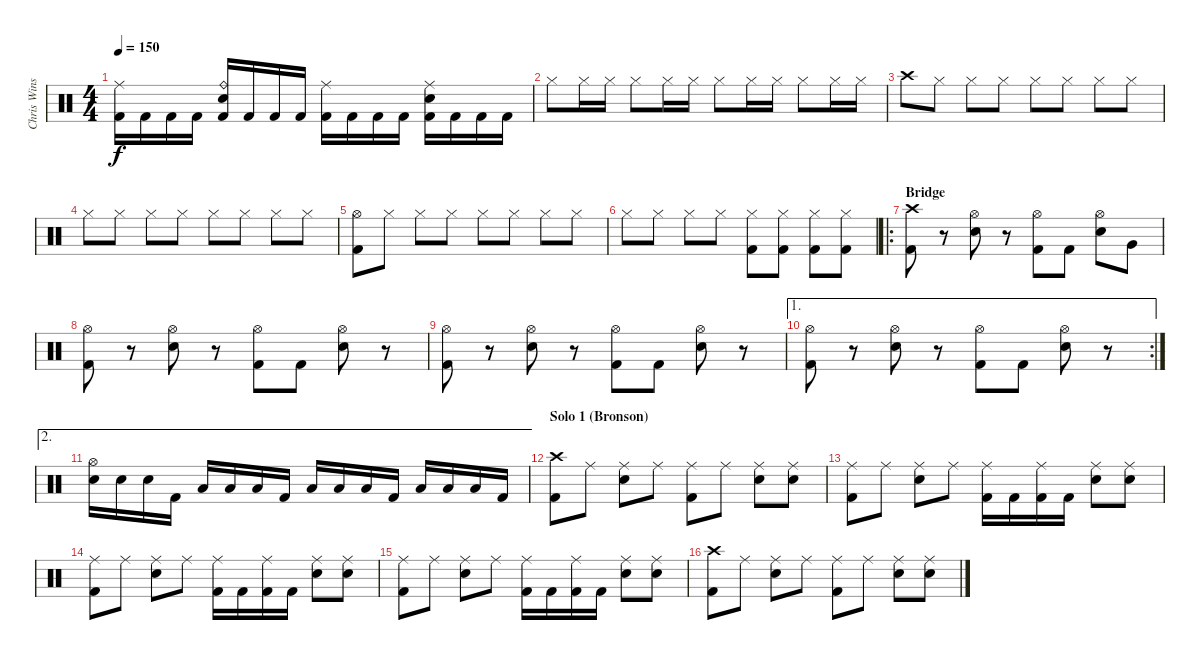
\track ("Chris Winship (Drums)" "Chris Wins") {instrument percussion}
\staff {score}
\articulation defaults
\ts (4 4)
\tempo 150
\clef neutral
\ks c
("Ride (middle)" "Kick (hit) 2").16{dy f} "Kick (hit) 2".16 "Kick (hit) 2".16 "Kick (hit) 2".16 ("Ride (bell)" "Electric Snare (hit)" "Kick (hit) 2").16 "Kick (hit) 2".16 "Kick (hit) 2".16 "Kick (hit) 2".16 ("Ride (middle)" "Kick (hit) 2").16 "Kick (hit) 2".16 "Kick (hit) 2".16 "Kick (hit) 2".16 ("Ride (middle)" "Electric Snare (hit)" "Kick (hit) 2").16 "Kick (hit) 2".16 "Kick (hit) 2".16 "Kick (hit) 2".16 |
"Hi-Hat (closed)".8 "Hi-Hat (closed)".16 "Hi-Hat (closed)".16 "Hi-Hat (closed)".8 "Hi-Hat (closed)".16 "Hi-Hat (closed)".16 "Hi-Hat (closed)".8 "Hi-Hat (closed)".16 "Hi-Hat (closed)".16 "Hi-Hat (closed)".8 "Hi-Hat (closed)".16 "Hi-Hat (closed)".16 |
"Crash high (hit)".8 "Hi-Hat (closed)".8 "Hi-Hat (closed)".8 "Hi-Hat (closed)".8 "Hi-Hat (closed)".8 "Hi-Hat (closed)".8 "Hi-Hat (closed)".8 "Hi-Hat (closed)".8 |
"Hi-Hat (closed)".8 "Hi-Hat (closed)".8 "Hi-Hat (closed)".8 "Hi-Hat (closed)".8 "Hi-Hat (closed)".8 "Hi-Hat (closed)".8 "Hi-Hat (closed)".8 "Hi-Hat (closed)".8 |
("Hi-Hat (open)" "Kick (hit) 2").8 "Hi-Hat (closed)".8 "Hi-Hat (closed)".8 "Hi-Hat (closed)".8 "Hi-Hat (closed)".8 "Hi-Hat (closed)".8 "Hi-Hat (closed)".8 "Hi-Hat (closed)".8 |
"Hi-Hat (closed)".8 "Hi-Hat (closed)".8 "Hi-Hat (closed)".8 "Hi-Hat (closed)".8 ("Hi-Hat (closed)" "Kick (hit) 2").8 ("Hi-Hat (closed)" "Kick (hit) 2").8 ("Hi-Hat (closed)" "Kick (hit) 2").8 ("Hi-Hat (closed)" "Kick (hit) 2").8 |
\ro
\section ("" "Bridge")
("Crash high (hit)" "Kick (hit) 2").8 r.8 ("Hi-Hat (open)" "Electric Snare (hit)").8 r.8 ("Hi-Hat (open)" "Kick (hit) 2").8 "Kick (hit) 2".8 ("Hi-Hat (open)" "Electric Snare (hit)").8 "Very Low Tom (hit)".8 |
("Hi-Hat (open)" "Kick (hit) 2").8 r.8 ("Hi-Hat (open)" "Electric Snare (hit)").8 r.8 ("Hi-Hat (open)" "Kick (hit) 2").8 "Kick (hit) 2".8 ("Hi-Hat (open)" "Electric Snare (hit)").8 r.8 |
("Hi-Hat (open)" "Kick (hit) 2").8 r.8 ("Hi-Hat (open)" "Electric Snare (hit)").8 r.8 ("Hi-Hat (open)" "Kick (hit) 2").8 "Kick (hit) 2".8 ("Hi-Hat (open)" "Electric Snare (hit)").8 r.8 |
\ae 1
\rc 2
("Hi-Hat (open)" "Kick (hit) 2").8 r.8 ("Hi-Hat (open)" "Electric Snare (hit)").8 r.8 ("Hi-Hat (open)" "Kick (hit) 2").8 "Kick (hit) 2".8 ("Hi-Hat (open)" "Electric Snare (hit)").8 r.8 |
\ae 2
("Hi-Hat (open)" "Electric Snare (hit)").16 "Electric Snare (hit)".16 "Electric Snare (hit)".16 "Kick (hit) 2".16 "Low Tom (hit)".16 "Low Tom (hit)".16 "Low Tom (hit)".16 "Kick (hit) 2".16 "Low Tom (hit)".16 "Low Tom (hit)".16 "Low Tom (hit)".16 "Kick (hit) 2".16 "Low Floor Tom (hit)".16 "Low Floor Tom (hit)".16 "Low Floor Tom (hit)".16 "Kick (hit) 2".16 |
\section ("" "Solo 1 (Bronson)")
("Crash high (hit)" "Kick (hit) 2").8 "Ride (middle)".8 ("Ride (middle)" "Electric Snare (hit)").8 "Ride (middle)".8 ("Ride (middle)" "Kick (hit) 2").8 "Ride (middle)".8 ("Ride (middle)" "Electric Snare (hit)").8 ("Ride (middle)" "Electric Snare (hit)").8 |
("Ride (middle)" "Kick (hit) 2").8 "Ride (middle)".8 ("Ride (middle)" "Electric Snare (hit)").8 "Ride (middle)".8 ("Ride (middle)" "Kick (hit) 2").16 "Kick (hit) 2".16 ("Ride (middle)" "Kick (hit) 2").16 "Kick (hit) 2".16 ("Ride (middle)" "Electric Snare (hit)").8 ("Ride (middle)" "Electric Snare (hit)").8 |
("Ride (middle)" "Kick (hit) 2").8 "Ride (middle)".8 ("Ride (middle)" "Electric Snare (hit)").8 "Ride (middle)".8 ("Ride (middle)" "Kick (hit) 2").16 "Kick (hit) 2".16 ("Ride (middle)" "Kick (hit) 2").16 "Kick (hit) 2".16 ("Ride (middle)" "Electric Snare (hit)").8 ("Ride (middle)" "Electric Snare (hit)").8 |
("Ride (middle)" "Kick (hit) 2").8 "Ride (middle)".8 ("Ride (middle)" "Electric Snare (hit)").8 "Ride (middle)".8 ("Ride (middle)" "Kick (hit) 2").16 "Kick (hit) 2".16 ("Ride (middle)" "Kick (hit) 2").16 "Kick (hit) 2".16 ("Ride (middle)" "Electric Snare (hit)").8 ("Ride (middle)" "Electric Snare (hit)").8 |
("Crash high (hit)" "Kick (hit) 2").8 "Ride (middle)".8 ("Ride (middle)" "Electric Snare (hit)").8 "Ride (middle)".8 ("Ride (middle)" "Kick (hit) 2").8 "Ride (middle)".8 ("Ride (middle)" "Electric Snare (hit)").8 ("Ride (middle)" "Electric Snare (hit)").8
